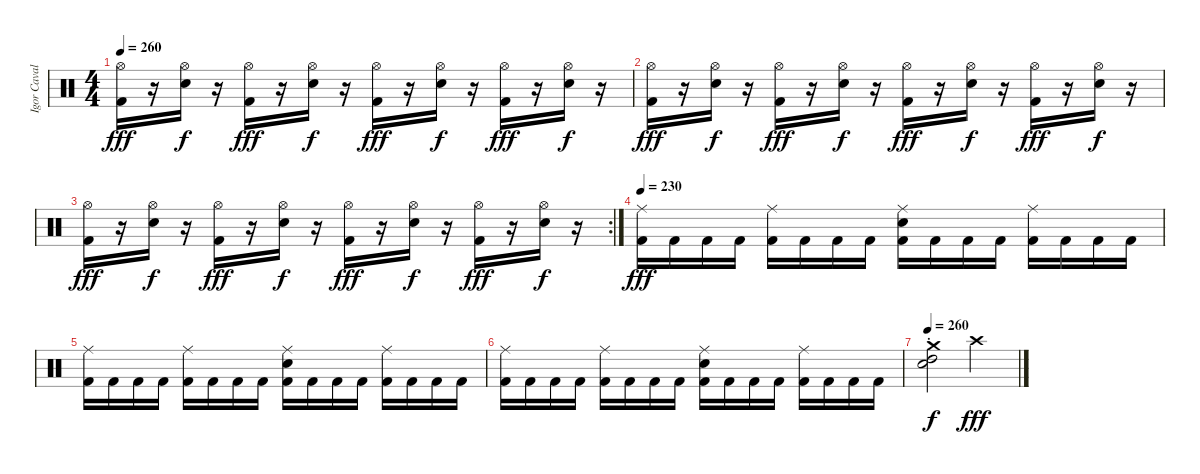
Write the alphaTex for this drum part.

\track ("Igor Cavalera" "Igor Caval") {instrument percussion}
\staff {score}
\articulation defaults
\ts (4 4)
\tempo 260
\clef neutral
\ks c
("Hi-Hat (open)" "Kick (hit) 2").16{dy fff} r.16 ("Electric Snare (hit)" "Hi-Hat (open)").16{dy f} r.16 ("Hi-Hat (open)" "Kick (hit) 2").16{dy fff} r.16 ("Electric Snare (hit)" "Hi-Hat (open)").16{dy f} r.16 ("Hi-Hat (open)" "Kick (hit) 2").16{dy fff} r.16 ("Electric Snare (hit)" "Hi-Hat (open)").16{dy f} r.16 ("Hi-Hat (open)" "Kick (hit) 2").16{dy fff} r.16 ("Electric Snare (hit)" "Hi-Hat (open)").16{dy f} r.16 |
("Hi-Hat (open)" "Kick (hit) 2").16{dy fff} r.16 ("Electric Snare (hit)" "Hi-Hat (open)").16{dy f} r.16 ("Hi-Hat (open)" "Kick (hit) 2").16{dy fff} r.16 ("Electric Snare (hit)" "Hi-Hat (open)").16{dy f} r.16 ("Hi-Hat (open)" "Kick (hit) 2").16{dy fff} r.16 ("Electric Snare (hit)" "Hi-Hat (open)").16{dy f} r.16 ("Hi-Hat (open)" "Kick (hit) 2").16{dy fff} r.16 ("Electric Snare (hit)" "Hi-Hat (open)").16{dy f} r.16 |
\rc 2
("Hi-Hat (open)" "Kick (hit) 2").16{dy fff} r.16 ("Electric Snare (hit)" "Hi-Hat (open)").16{dy f} r.16 ("Hi-Hat (open)" "Kick (hit) 2").16{dy fff} r.16 ("Electric Snare (hit)" "Hi-Hat (open)").16{dy f} r.16 ("Hi-Hat (open)" "Kick (hit) 2").16{dy fff} r.16 ("Electric Snare (hit)" "Hi-Hat (open)").16{dy f} r.16 ("Hi-Hat (open)" "Kick (hit) 2").16{dy fff} r.16 ("Electric Snare (hit)" "Hi-Hat (open)").16{dy f} r.16 |
\tempo 230
("Ride (middle)" "Kick (hit) 2").16{dy fff} "Kick (hit) 2".16 "Kick (hit) 2".16 "Kick (hit) 2".16 ("Ride (middle)" "Kick (hit) 2").16 "Kick (hit) 2".16 "Kick (hit) 2".16 "Kick (hit) 2".16 ("Electric Snare (hit)" "Ride (middle)" "Kick (hit) 2").16 "Kick (hit) 2".16 "Kick (hit) 2".16 "Kick (hit) 2".16 ("Ride (middle)" "Kick (hit) 2").16 "Kick (hit) 2".16 "Kick (hit) 2".16 "Kick (hit) 2".16 |
("Ride (middle)" "Kick (hit) 2").16 "Kick (hit) 2".16 "Kick (hit) 2".16 "Kick (hit) 2".16 ("Ride (middle)" "Kick (hit) 2").16 "Kick (hit) 2".16 "Kick (hit) 2".16 "Kick (hit) 2".16 ("Electric Snare (hit)" "Ride (middle)" "Kick (hit) 2").16 "Kick (hit) 2".16 "Kick (hit) 2".16 "Kick (hit) 2".16 ("Ride (middle)" "Kick (hit) 2").16 "Kick (hit) 2".16 "Kick (hit) 2".16 "Kick (hit) 2".16 |
("Ride (middle)" "Kick (hit) 2").16 "Kick (hit) 2".16 "Kick (hit) 2".16 "Kick (hit) 2".16 ("Ride (middle)" "Kick (hit) 2").16 "Kick (hit) 2".16 "Kick (hit) 2".16 "Kick (hit) 2".16 ("Electric Snare (hit)" "Ride (middle)" "Kick (hit) 2").16 "Kick (hit) 2".16 "Kick (hit) 2".16 "Kick (hit) 2".16 ("Ride (middle)" "Kick (hit) 2").16 "Kick (hit) 2".16 "Kick (hit) 2".16 "Kick (hit) 2".16 |
\tempo 260
("Crash medium (hit)"{st} "High Tom (hit)" "Electric Snare (hit)").2{dy f} "Crash high (hit)".2{dy fff}
